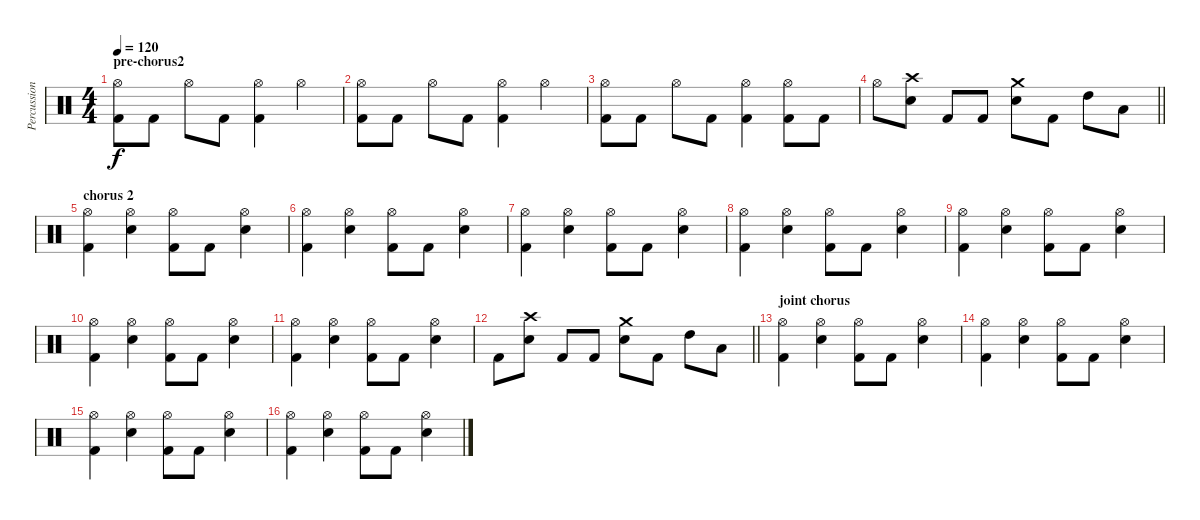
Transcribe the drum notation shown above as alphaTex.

\track ("Percussion" "Percussion") {instrument percussion}
\staff {score}
\articulation defaults
\ts (4 4)
\section ("" "pre-chorus2")
\tempo 120
\clef neutral
\ks c
("Kick (hit) 2" "Hi-Hat (open)").8{dy f} "Kick (hit) 2".8 "Hi-Hat (open)".8 "Kick (hit) 2".8 ("Kick (hit) 2" "Hi-Hat (open)").4 "Hi-Hat (open)".4 |
("Kick (hit) 2" "Hi-Hat (open)").8 "Kick (hit) 2".8 "Hi-Hat (open)".8 "Kick (hit) 2".8 ("Kick (hit) 2" "Hi-Hat (open)").4 "Hi-Hat (open)".4 |
("Kick (hit) 2" "Hi-Hat (open)").8 "Kick (hit) 2".8 "Hi-Hat (open)".8 "Kick (hit) 2".8 ("Kick (hit) 2" "Hi-Hat (open)").4 ("Kick (hit) 2" "Hi-Hat (open)").8 "Kick (hit) 2".8 |
\barLineRight lightlight "Hi-Hat (open)".8
("Snare (hit) 2" "Crash high (hit)").8 "Kick (hit) 2".8 "Kick (hit) 2".8 ("Snare (hit) 2" "Crash medium (hit)").8 "Kick (hit) 2".8 "High Tom (hit)".8 "Low Tom (hit)".8 |
\section ("" "chorus 2")
("Kick (hit) 2" "Hi-Hat (open)").4 ("Snare (hit) 2" "Hi-Hat (open)").4 ("Kick (hit) 2" "Hi-Hat (open)").8 "Kick (hit) 2".8 ("Snare (hit) 2" "Hi-Hat (open)").4 |
("Kick (hit) 2" "Hi-Hat (open)").4 ("Snare (hit) 2" "Hi-Hat (open)").4 ("Kick (hit) 2" "Hi-Hat (open)").8 "Kick (hit) 2".8 ("Snare (hit) 2" "Hi-Hat (open)").4 |
("Kick (hit) 2" "Hi-Hat (open)").4 ("Snare (hit) 2" "Hi-Hat (open)").4 ("Kick (hit) 2" "Hi-Hat (open)").8 "Kick (hit) 2".8 ("Snare (hit) 2" "Hi-Hat (open)").4 |
("Kick (hit) 2" "Hi-Hat (open)").4 ("Snare (hit) 2" "Hi-Hat (open)").4 ("Kick (hit) 2" "Hi-Hat (open)").8 "Kick (hit) 2".8 ("Snare (hit) 2" "Hi-Hat (open)").4 |
("Kick (hit) 2" "Hi-Hat (open)").4 ("Snare (hit) 2" "Hi-Hat (open)").4 ("Kick (hit) 2" "Hi-Hat (open)").8 "Kick (hit) 2".8 ("Snare (hit) 2" "Hi-Hat (open)").4 |
("Kick (hit) 2" "Hi-Hat (open)").4 ("Snare (hit) 2" "Hi-Hat (open)").4 ("Kick (hit) 2" "Hi-Hat (open)").8 "Kick (hit) 2".8 ("Snare (hit) 2" "Hi-Hat (open)").4 |
("Kick (hit) 2" "Hi-Hat (open)").4 ("Snare (hit) 2" "Hi-Hat (open)").4 ("Kick (hit) 2" "Hi-Hat (open)").8 "Kick (hit) 2".8 ("Snare (hit) 2" "Hi-Hat (open)").4 |
\barLineRight lightlight "Kick (hit) 2".8
("Snare (hit) 2" "Crash high (hit)").8 "Kick (hit) 2".8 "Kick (hit) 2".8 ("Snare (hit) 2" "Crash medium (hit)").8 "Kick (hit) 2".8 "High Tom (hit)".8 "Low Tom (hit)".8 |
\section ("" "joint chorus")
("Kick (hit) 2" "Hi-Hat (open)").4 ("Snare (hit) 2" "Hi-Hat (open)").4 ("Kick (hit) 2" "Hi-Hat (open)").8 "Kick (hit) 2".8 ("Snare (hit) 2" "Hi-Hat (open)").4 |
("Kick (hit) 2" "Hi-Hat (open)").4 ("Snare (hit) 2" "Hi-Hat (open)").4 ("Kick (hit) 2" "Hi-Hat (open)").8 "Kick (hit) 2".8 ("Snare (hit) 2" "Hi-Hat (open)").4 |
("Kick (hit) 2" "Hi-Hat (open)").4 ("Snare (hit) 2" "Hi-Hat (open)").4 ("Kick (hit) 2" "Hi-Hat (open)").8 "Kick (hit) 2".8 ("Snare (hit) 2" "Hi-Hat (open)").4 |
("Kick (hit) 2" "Hi-Hat (open)").4 ("Snare (hit) 2" "Hi-Hat (open)").4 ("Kick (hit) 2" "Hi-Hat (open)").8 "Kick (hit) 2".8 ("Snare (hit) 2" "Hi-Hat (open)").4
